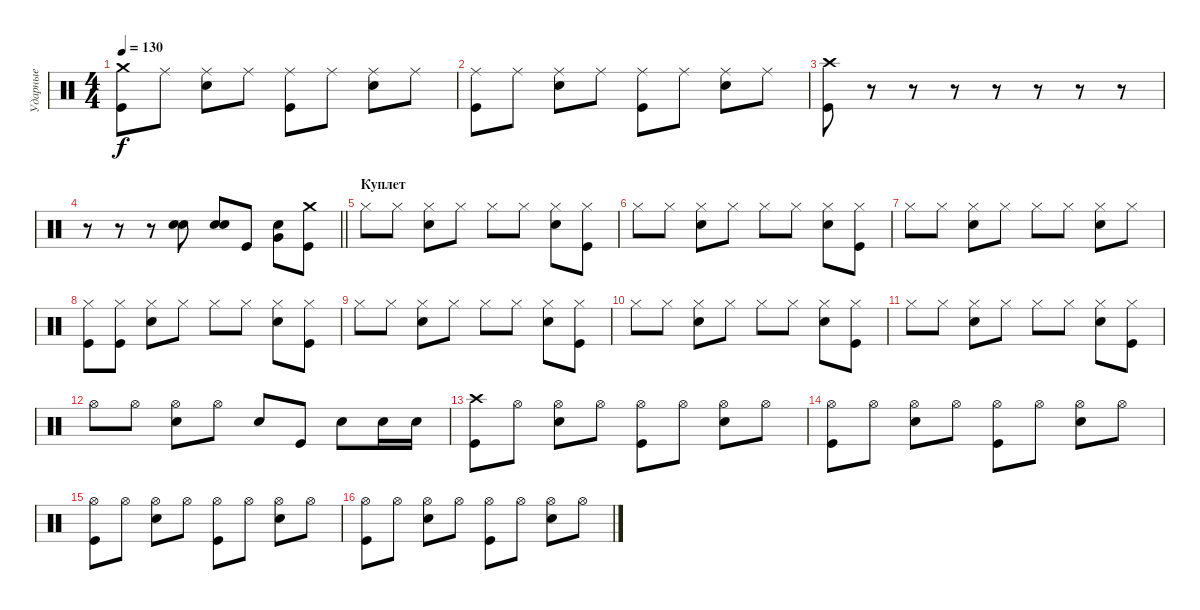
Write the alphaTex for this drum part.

\track ("Ударные" "Ударные") {instrument percussion}
\staff {score}
\articulation defaults
\ts (4 4)
\tempo 130
\clef neutral
\ks c
("Kick (hit)" "Crash medium (hit)").8{dy f} "Ride (middle)".8 ("Snare (hit) 2" "Ride (middle)").8 "Ride (middle)".8 ("Kick (hit)" "Ride (middle)").8 "Ride (middle)".8 ("Snare (hit) 2" "Ride (middle)").8 "Ride (middle)".8 |
("Kick (hit)" "Ride (middle)").8 "Ride (middle)".8 ("Snare (hit) 2" "Ride (middle)").8 "Ride (middle)".8 ("Kick (hit)" "Ride (middle)").8 "Ride (middle)".8 ("Snare (hit) 2" "Ride (middle)").8 "Ride (middle)".8 |
("Kick (hit)" "Crash high (hit)").8 r.8 r.8 r.8 r.8 r.8 r.8 r.8 |
\barLineRight lightlight
r.8 r.8 r.8 ("Snare (hit) 2" "Snare (hit) 2").8{bd 120} ("Snare (hit) 2" "Snare (hit) 2").8{bd 120} "Kick (hit)".8 ("Snare (hit) 2" "Very Low Tom (hit)").8 ("Kick (hit)" "Crash medium (hit)").8 |
\section ("" "Куплет")
"Hi-Hat (closed)".8 "Hi-Hat (closed)".8 ("Snare (hit) 2" "Hi-Hat (closed)").8 "Hi-Hat (closed)".8 "Hi-Hat (closed)".8 "Hi-Hat (closed)".8 ("Snare (hit) 2" "Hi-Hat (closed)").8 ("Kick (hit)" "Hi-Hat (closed)").8 |
"Hi-Hat (closed)".8 "Hi-Hat (closed)".8 ("Snare (hit) 2" "Hi-Hat (closed)").8 "Hi-Hat (closed)".8 "Hi-Hat (closed)".8 "Hi-Hat (closed)".8 ("Snare (hit) 2" "Hi-Hat (closed)").8 ("Kick (hit)" "Hi-Hat (closed)").8 |
"Hi-Hat (closed)".8 "Hi-Hat (closed)".8 ("Snare (hit) 2" "Hi-Hat (closed)").8 "Hi-Hat (closed)".8 "Hi-Hat (closed)".8 "Hi-Hat (closed)".8 ("Snare (hit) 2" "Hi-Hat (closed)").8 "Hi-Hat (closed)".8 |
("Kick (hit)" "Hi-Hat (closed)").8 ("Kick (hit)" "Hi-Hat (closed)").8 ("Snare (hit) 2" "Hi-Hat (closed)").8 "Hi-Hat (closed)".8 "Hi-Hat (closed)".8 "Hi-Hat (closed)".8 ("Snare (hit) 2" "Hi-Hat (closed)").8 ("Kick (hit)" "Hi-Hat (closed)").8 |
"Hi-Hat (closed)".8 "Hi-Hat (closed)".8 ("Snare (hit) 2" "Hi-Hat (closed)").8 "Hi-Hat (closed)".8 "Hi-Hat (closed)".8 "Hi-Hat (closed)".8 ("Snare (hit) 2" "Hi-Hat (closed)").8 ("Kick (hit)" "Hi-Hat (closed)").8 |
"Hi-Hat (closed)".8 "Hi-Hat (closed)".8 ("Snare (hit) 2" "Hi-Hat (closed)").8 "Hi-Hat (closed)".8 "Hi-Hat (closed)".8 "Hi-Hat (closed)".8 ("Snare (hit) 2" "Hi-Hat (closed)").8 ("Kick (hit)" "Hi-Hat (closed)").8 |
"Hi-Hat (closed)".8 "Hi-Hat (closed)".8 ("Snare (hit) 2" "Hi-Hat (closed)").8 "Hi-Hat (closed)".8 "Hi-Hat (closed)".8 "Hi-Hat (closed)".8 ("Snare (hit) 2" "Hi-Hat (closed)").8 ("Kick (hit)" "Hi-Hat (closed)").8 |
"Hi-Hat (open)".8 "Hi-Hat (open)".8 ("Snare (hit) 2" "Hi-Hat (open)").8 "Hi-Hat (open)".8 "Snare (hit) 2".8 "Kick (hit)".8 "Snare (hit) 2".8 "Snare (hit) 2".16 "Snare (hit) 2".16 |
("Kick (hit)" "Crash high (hit)").8 "Hi-Hat (open)".8 ("Snare (hit) 2" "Hi-Hat (open)").8 "Hi-Hat (open)".8 ("Kick (hit)" "Hi-Hat (open)").8 "Hi-Hat (open)".8 ("Snare (hit) 2" "Hi-Hat (open)").8 "Hi-Hat (open)".8 |
("Kick (hit)" "Hi-Hat (open)").8 "Hi-Hat (open)".8 ("Snare (hit) 2" "Hi-Hat (open)").8 "Hi-Hat (open)".8 ("Kick (hit)" "Hi-Hat (open)").8 "Hi-Hat (open)".8 ("Snare (hit) 2" "Hi-Hat (open)").8 "Hi-Hat (open)".8 |
("Kick (hit)" "Hi-Hat (open)").8 "Hi-Hat (open)".8 ("Snare (hit) 2" "Hi-Hat (open)").8 "Hi-Hat (open)".8 ("Kick (hit)" "Hi-Hat (open)").8 "Hi-Hat (open)".8 ("Snare (hit) 2" "Hi-Hat (open)").8 "Hi-Hat (open)".8 |
("Kick (hit)" "Hi-Hat (open)").8 "Hi-Hat (open)".8 ("Snare (hit) 2" "Hi-Hat (open)").8 "Hi-Hat (open)".8 ("Kick (hit)" "Hi-Hat (open)").8 "Hi-Hat (open)".8 ("Snare (hit) 2" "Hi-Hat (open)").8 "Hi-Hat (open)".8
